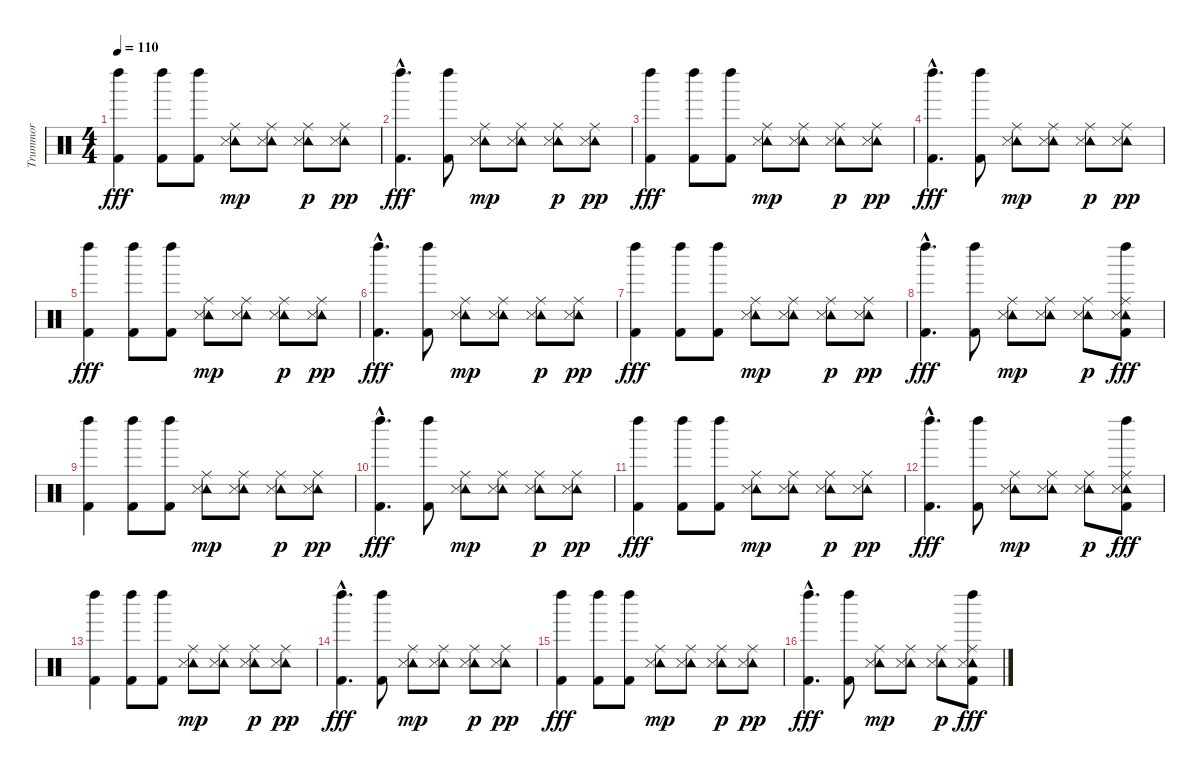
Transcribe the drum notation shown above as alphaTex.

\track ("Trummor" "Trummor") {instrument percussion}
\staff {score}
\articulation defaults
\ts (4 4)
\tempo 110
\clef neutral
\ks c
("Left Maraca (hit)" "Kick (hit) 2").4{dy fff} ("Left Maraca (hit)" "Kick (hit) 2").8 ("Left Maraca (hit)" "Kick (hit) 2").8 ("Tambourine (hit)" "Ride (middle)" "Snare (side stick) 3").8{dy mp} ("Tambourine (hit)" "Ride (middle)" "Snare (side stick) 3").8 ("Tambourine (hit)" "Ride (middle)" "Snare (side stick) 3").8{dy p} ("Tambourine (hit)" "Ride (middle)" "Snare (side stick) 3").8{dy pp} |
("Left Maraca (hit)"{hac} "Kick (hit) 2"{hac}).4{d dy fff} ("Left Maraca (hit)" "Kick (hit) 2").8 ("Tambourine (hit)" "Ride (middle)" "Snare (side stick) 3").8{dy mp} ("Tambourine (hit)" "Ride (middle)" "Snare (side stick) 3").8 ("Tambourine (hit)" "Ride (middle)" "Snare (side stick) 3").8{dy p} ("Tambourine (hit)" "Ride (middle)" "Snare (side stick) 3").8{dy pp} |
("Left Maraca (hit)" "Kick (hit) 2").4{dy fff} ("Left Maraca (hit)" "Kick (hit) 2").8 ("Left Maraca (hit)" "Kick (hit) 2").8 ("Tambourine (hit)" "Ride (middle)" "Snare (side stick) 3").8{dy mp} ("Tambourine (hit)" "Ride (middle)" "Snare (side stick) 3").8 ("Tambourine (hit)" "Ride (middle)" "Snare (side stick) 3").8{dy p} ("Tambourine (hit)" "Ride (middle)" "Snare (side stick) 3").8{dy pp} |
("Left Maraca (hit)"{hac} "Kick (hit) 2"{hac}).4{d dy fff} ("Left Maraca (hit)" "Kick (hit) 2").8 ("Tambourine (hit)" "Ride (middle)" "Snare (side stick) 3").8{dy mp} ("Tambourine (hit)" "Ride (middle)" "Snare (side stick) 3").8 ("Tambourine (hit)" "Ride (middle)" "Snare (side stick) 3").8{dy p} ("Tambourine (hit)" "Ride (middle)" "Snare (side stick) 3").8{dy pp} |
("Left Maraca (hit)" "Kick (hit) 2").4{dy fff} ("Left Maraca (hit)" "Kick (hit) 2").8 ("Left Maraca (hit)" "Kick (hit) 2").8 ("Tambourine (hit)" "Ride (middle)" "Snare (side stick) 3").8{dy mp} ("Tambourine (hit)" "Ride (middle)" "Snare (side stick) 3").8 ("Tambourine (hit)" "Ride (middle)" "Snare (side stick) 3").8{dy p} ("Tambourine (hit)" "Ride (middle)" "Snare (side stick) 3").8{dy pp} |
("Left Maraca (hit)"{hac} "Kick (hit) 2"{hac}).4{d dy fff} ("Left Maraca (hit)" "Kick (hit) 2").8 ("Tambourine (hit)" "Ride (middle)" "Snare (side stick) 3").8{dy mp} ("Tambourine (hit)" "Ride (middle)" "Snare (side stick) 3").8 ("Tambourine (hit)" "Ride (middle)" "Snare (side stick) 3").8{dy p} ("Tambourine (hit)" "Ride (middle)" "Snare (side stick) 3").8{dy pp} |
("Left Maraca (hit)" "Kick (hit) 2").4{dy fff} ("Left Maraca (hit)" "Kick (hit) 2").8 ("Left Maraca (hit)" "Kick (hit) 2").8 ("Tambourine (hit)" "Ride (middle)" "Snare (side stick) 3").8{dy mp} ("Tambourine (hit)" "Ride (middle)" "Snare (side stick) 3").8 ("Tambourine (hit)" "Ride (middle)" "Snare (side stick) 3").8{dy p} ("Tambourine (hit)" "Ride (middle)" "Snare (side stick) 3").8{dy pp} |
("Left Maraca (hit)"{hac} "Kick (hit) 2"{hac}).4{d dy fff} ("Left Maraca (hit)" "Kick (hit) 2").8 ("Tambourine (hit)" "Ride (middle)" "Snare (side stick) 3").8{dy mp} ("Tambourine (hit)" "Ride (middle)" "Snare (side stick) 3").8 ("Tambourine (hit)" "Ride (middle)" "Snare (side stick) 3").8{dy p} ("Tambourine (hit)" "Ride (middle)" "Snare (side stick) 3" "Left Maraca (hit)" "Kick (hit) 2").8{dy fff} |
("Left Maraca (hit)" "Kick (hit) 2").4 ("Left Maraca (hit)" "Kick (hit) 2").8 ("Left Maraca (hit)" "Kick (hit) 2").8 ("Tambourine (hit)" "Ride (middle)" "Snare (side stick) 3").8{dy mp} ("Tambourine (hit)" "Ride (middle)" "Snare (side stick) 3").8 ("Tambourine (hit)" "Ride (middle)" "Snare (side stick) 3").8{dy p} ("Tambourine (hit)" "Ride (middle)" "Snare (side stick) 3").8{dy pp} |
("Left Maraca (hit)"{hac} "Kick (hit) 2"{hac}).4{d dy fff} ("Left Maraca (hit)" "Kick (hit) 2").8 ("Tambourine (hit)" "Ride (middle)" "Snare (side stick) 3").8{dy mp} ("Tambourine (hit)" "Ride (middle)" "Snare (side stick) 3").8 ("Tambourine (hit)" "Ride (middle)" "Snare (side stick) 3").8{dy p} ("Tambourine (hit)" "Ride (middle)" "Snare (side stick) 3").8{dy pp} |
("Left Maraca (hit)" "Kick (hit) 2").4{dy fff} ("Left Maraca (hit)" "Kick (hit) 2").8 ("Left Maraca (hit)" "Kick (hit) 2").8 ("Tambourine (hit)" "Ride (middle)" "Snare (side stick) 3").8{dy mp} ("Tambourine (hit)" "Ride (middle)" "Snare (side stick) 3").8 ("Tambourine (hit)" "Ride (middle)" "Snare (side stick) 3").8{dy p} ("Tambourine (hit)" "Ride (middle)" "Snare (side stick) 3").8{dy pp} |
("Left Maraca (hit)"{hac} "Kick (hit) 2"{hac}).4{d dy fff} ("Left Maraca (hit)" "Kick (hit) 2").8 ("Tambourine (hit)" "Ride (middle)" "Snare (side stick) 3").8{dy mp} ("Tambourine (hit)" "Ride (middle)" "Snare (side stick) 3").8 ("Tambourine (hit)" "Ride (middle)" "Snare (side stick) 3").8{dy p} ("Tambourine (hit)" "Ride (middle)" "Snare (side stick) 3" "Left Maraca (hit)" "Kick (hit) 2").8{dy fff} |
("Left Maraca (hit)" "Kick (hit) 2").4 ("Left Maraca (hit)" "Kick (hit) 2").8 ("Left Maraca (hit)" "Kick (hit) 2").8 ("Tambourine (hit)" "Ride (middle)" "Snare (side stick) 3").8{dy mp} ("Tambourine (hit)" "Ride (middle)" "Snare (side stick) 3").8 ("Tambourine (hit)" "Ride (middle)" "Snare (side stick) 3").8{dy p} ("Tambourine (hit)" "Ride (middle)" "Snare (side stick) 3").8{dy pp} |
("Left Maraca (hit)"{hac} "Kick (hit) 2"{hac}).4{d dy fff} ("Left Maraca (hit)" "Kick (hit) 2").8 ("Tambourine (hit)" "Ride (middle)" "Snare (side stick) 3").8{dy mp} ("Tambourine (hit)" "Ride (middle)" "Snare (side stick) 3").8 ("Tambourine (hit)" "Ride (middle)" "Snare (side stick) 3").8{dy p} ("Tambourine (hit)" "Ride (middle)" "Snare (side stick) 3").8{dy pp} |
("Left Maraca (hit)" "Kick (hit) 2").4{dy fff} ("Left Maraca (hit)" "Kick (hit) 2").8 ("Left Maraca (hit)" "Kick (hit) 2").8 ("Tambourine (hit)" "Ride (middle)" "Snare (side stick) 3").8{dy mp} ("Tambourine (hit)" "Ride (middle)" "Snare (side stick) 3").8 ("Tambourine (hit)" "Ride (middle)" "Snare (side stick) 3").8{dy p} ("Tambourine (hit)" "Ride (middle)" "Snare (side stick) 3").8{dy pp} |
("Left Maraca (hit)"{hac} "Kick (hit) 2"{hac}).4{d dy fff} ("Left Maraca (hit)" "Kick (hit) 2").8 ("Tambourine (hit)" "Ride (middle)" "Snare (side stick) 3").8{dy mp} ("Tambourine (hit)" "Ride (middle)" "Snare (side stick) 3").8 ("Tambourine (hit)" "Ride (middle)" "Snare (side stick) 3").8{dy p} ("Tambourine (hit)" "Ride (middle)" "Snare (side stick) 3" "Left Maraca (hit)" "Kick (hit) 2").8{dy fff}
